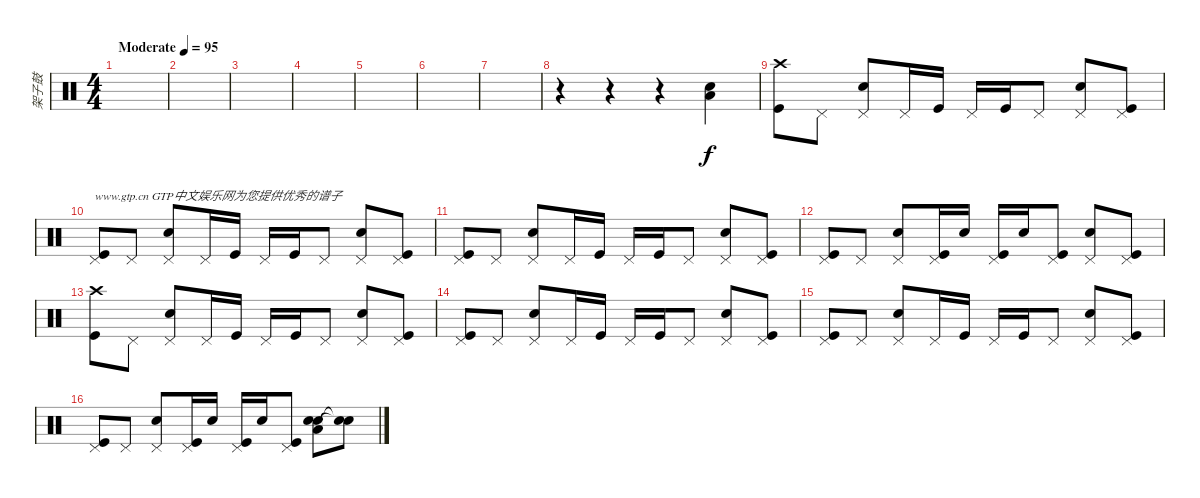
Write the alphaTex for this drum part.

\track ("架子鼓" "架子鼓") {instrument percussion}
\staff {score}
\articulation defaults
\ts (4 4)
\tempo (95 "Moderate")
\clef neutral
\ks c
|
|
|
|
|
|
|
r.4 r.4 r.4 ("Snare (hit) 2" "Low Floor Tom (hit)").4 |
("Kick (hit)" "Crash high (hit)").8 "Pedal Hi-Hat (hit)".8 ("Snare (hit) 2" "Pedal Hi-Hat (hit)").8 "Pedal Hi-Hat (hit)".16 "Kick (hit)".16 "Pedal Hi-Hat (hit)".16 "Kick (hit)".16 "Pedal Hi-Hat (hit)".8 ("Snare (hit) 2" "Pedal Hi-Hat (hit)").8 ("Kick (hit)" "Pedal Hi-Hat (hit)").8 |
("Kick (hit)" "Pedal Hi-Hat (hit)").8{txt "www.gtp.cn GTP中文娱乐网为您提供优秀的谱子"} "Pedal Hi-Hat (hit)".8 ("Snare (hit) 2" "Pedal Hi-Hat (hit)").8 "Pedal Hi-Hat (hit)".16 "Kick (hit)".16 "Pedal Hi-Hat (hit)".16 "Kick (hit)".16 "Pedal Hi-Hat (hit)".8 ("Snare (hit) 2" "Pedal Hi-Hat (hit)").8 ("Kick (hit)" "Pedal Hi-Hat (hit)").8 |
("Kick (hit)" "Pedal Hi-Hat (hit)").8 "Pedal Hi-Hat (hit)".8 ("Snare (hit) 2" "Pedal Hi-Hat (hit)").8 "Pedal Hi-Hat (hit)".16 "Kick (hit)".16 "Pedal Hi-Hat (hit)".16 "Kick (hit)".16 "Pedal Hi-Hat (hit)".8 ("Snare (hit) 2" "Pedal Hi-Hat (hit)").8 ("Kick (hit)" "Pedal Hi-Hat (hit)").8 |
("Kick (hit)" "Pedal Hi-Hat (hit)").8 "Pedal Hi-Hat (hit)".8 ("Snare (hit) 2" "Pedal Hi-Hat (hit)").8 ("Kick (hit)" "Pedal Hi-Hat (hit)").16 "Snare (hit) 2".16 ("Kick (hit)" "Pedal Hi-Hat (hit)").16 "Snare (hit) 2".16 ("Kick (hit)" "Pedal Hi-Hat (hit)").8 ("Snare (hit) 2" "Pedal Hi-Hat (hit)").8 ("Kick (hit)" "Pedal Hi-Hat (hit)").8 |
("Kick (hit)" "Crash high (hit)").8 "Pedal Hi-Hat (hit)".8 ("Snare (hit) 2" "Pedal Hi-Hat (hit)").8 "Pedal Hi-Hat (hit)".16 "Kick (hit)".16 "Pedal Hi-Hat (hit)".16 "Kick (hit)".16 "Pedal Hi-Hat (hit)".8 ("Snare (hit) 2" "Pedal Hi-Hat (hit)").8 ("Kick (hit)" "Pedal Hi-Hat (hit)").8 |
("Kick (hit)" "Pedal Hi-Hat (hit)").8 "Pedal Hi-Hat (hit)".8 ("Snare (hit) 2" "Pedal Hi-Hat (hit)").8 "Pedal Hi-Hat (hit)".16 "Kick (hit)".16 "Pedal Hi-Hat (hit)".16 "Kick (hit)".16 "Pedal Hi-Hat (hit)".8 ("Snare (hit) 2" "Pedal Hi-Hat (hit)").8 ("Kick (hit)" "Pedal Hi-Hat (hit)").8 |
("Kick (hit)" "Pedal Hi-Hat (hit)").8 "Pedal Hi-Hat (hit)".8 ("Snare (hit) 2" "Pedal Hi-Hat (hit)").8 "Pedal Hi-Hat (hit)".16 "Kick (hit)".16 "Pedal Hi-Hat (hit)".16 "Kick (hit)".16 "Pedal Hi-Hat (hit)".8 ("Snare (hit) 2" "Pedal Hi-Hat (hit)").8 ("Kick (hit)" "Pedal Hi-Hat (hit)").8 |
("Kick (hit)" "Pedal Hi-Hat (hit)").8 "Pedal Hi-Hat (hit)".8 ("Snare (hit) 2" "Pedal Hi-Hat (hit)").8 ("Kick (hit)" "Pedal Hi-Hat (hit)").16 "Snare (hit) 2".16 ("Kick (hit)" "Pedal Hi-Hat (hit)").16 "Snare (hit) 2".16 ("Kick (hit)" "Pedal Hi-Hat (hit)").8 ("Low Floor Tom (hit)" "Snare (hit) 2" "Snare (hit) 2").8 ("Snare (hit)"{t} "Snare (hit)"{t}).8
